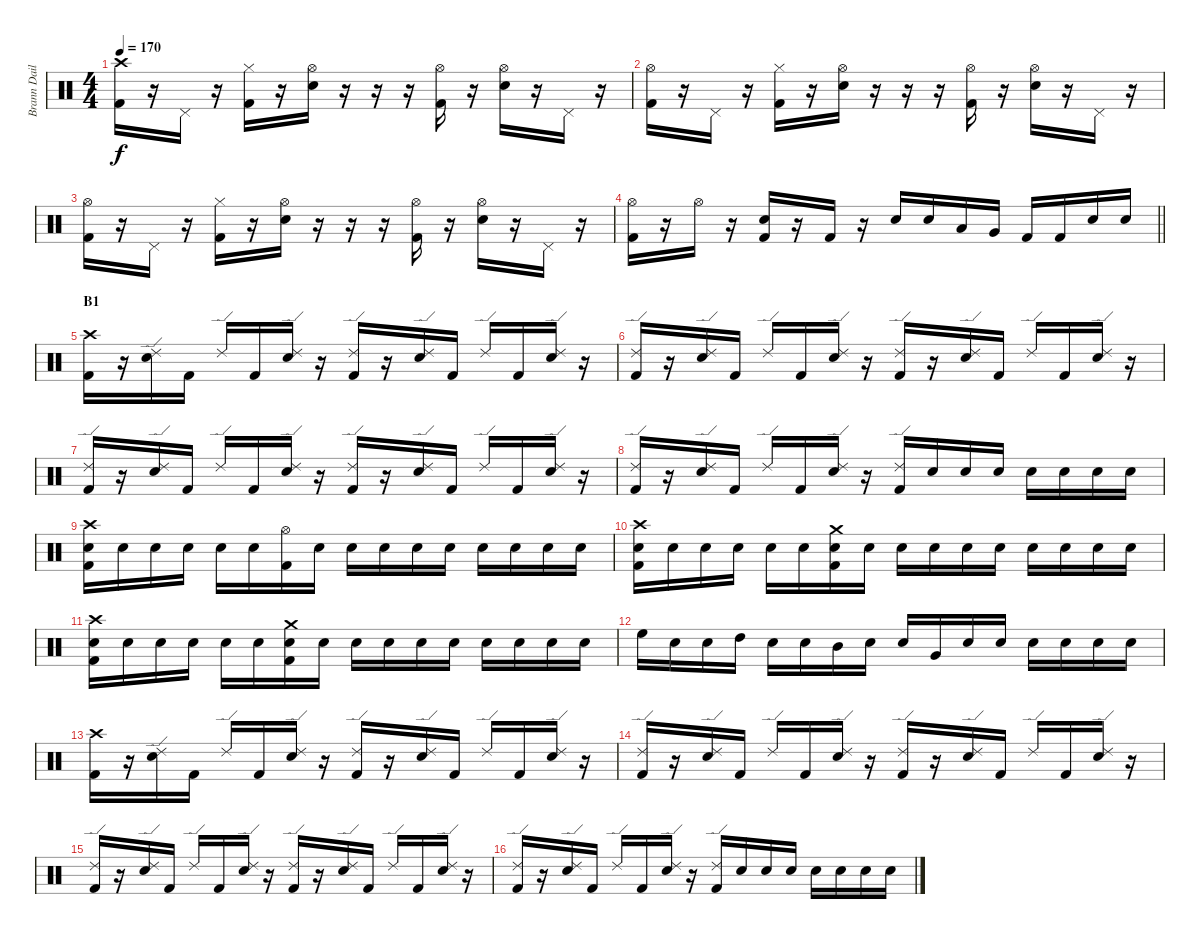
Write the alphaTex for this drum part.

\track ("Brann Dailor" "Brann Dail") {instrument percussion}
\staff {score}
\articulation defaults
\ts (4 4)
\tempo 170
\clef neutral
\ks c
("Crash high (hit)" "Kick (hit) 2").16{dy f} r.16 "Pedal Hi-Hat (hit)".16 r.16 ("Hi-Hat (closed)" "Kick (hit) 2").16 r.16 ("Hi-Hat (open)" "Electric Snare (hit)").16 r.16 r.16 r.16 ("Hi-Hat (open)" "Kick (hit) 2").16 r.16 ("Hi-Hat (open)" "Electric Snare (hit)").16 r.16 "Pedal Hi-Hat (hit)".16 r.16 |
("Hi-Hat (open)" "Kick (hit) 2").16 r.16 "Pedal Hi-Hat (hit)".16 r.16 ("Hi-Hat (closed)" "Kick (hit) 2").16 r.16 ("Hi-Hat (open)" "Electric Snare (hit)").16 r.16 r.16 r.16 ("Hi-Hat (open)" "Kick (hit) 2").16 r.16 ("Hi-Hat (open)" "Electric Snare (hit)").16 r.16 "Pedal Hi-Hat (hit)".16 r.16 |
("Hi-Hat (open)" "Kick (hit) 2").16 r.16 "Pedal Hi-Hat (hit)".16 r.16 ("Hi-Hat (closed)" "Kick (hit) 2").16 r.16 ("Hi-Hat (open)" "Electric Snare (hit)").16 r.16 r.16 r.16 ("Hi-Hat (open)" "Kick (hit) 2").16 r.16 ("Hi-Hat (open)" "Electric Snare (hit)").16 r.16 "Pedal Hi-Hat (hit)".16 r.16 |
\barLineRight lightlight
("Hi-Hat (open)" "Kick (hit) 2").16 r.16 "Hi-Hat (open)".16 r.16 ("Electric Snare (hit)" "Kick (hit) 2").16 r.16 "Kick (hit) 2".16 r.16 "Electric Snare (hit)".16 "Electric Snare (hit)".16 "Low Tom (hit)".16 "Very Low Tom (hit)".16 "Kick (hit) 2".16 "Kick (hit) 2".16 "Electric Snare (hit)".16 "Electric Snare (hit)".16 |
\section ("" "B1")
("Crash high (hit)" "Kick (hit) 2").16 r.16 ("Ride (edge) 2" "Electric Snare (hit)").16 "Kick (hit) 2".16 "Ride (edge) 2".16 "Kick (hit) 2".16 ("Ride (edge) 2" "Electric Snare (hit)").16 r.16 ("Ride (edge) 2" "Kick (hit) 2").16 r.16 ("Ride (edge) 2" "Electric Snare (hit)").16 "Kick (hit) 2".16 "Ride (edge) 2".16 "Kick (hit) 2".16 ("Ride (edge) 2" "Electric Snare (hit)").16 r.16 |
("Ride (edge) 2" "Kick (hit) 2").16 r.16 ("Ride (edge) 2" "Electric Snare (hit)").16 "Kick (hit) 2".16 "Ride (edge) 2".16 "Kick (hit) 2".16 ("Ride (edge) 2" "Electric Snare (hit)").16 r.16 ("Ride (edge) 2" "Kick (hit) 2").16 r.16 ("Ride (edge) 2" "Electric Snare (hit)").16 "Kick (hit) 2".16 "Ride (edge) 2".16 "Kick (hit) 2".16 ("Ride (edge) 2" "Electric Snare (hit)").16 r.16 |
("Ride (edge) 2" "Kick (hit) 2").16 r.16 ("Ride (edge) 2" "Electric Snare (hit)").16 "Kick (hit) 2".16 "Ride (edge) 2".16 "Kick (hit) 2".16 ("Ride (edge) 2" "Electric Snare (hit)").16 r.16 ("Ride (edge) 2" "Kick (hit) 2").16 r.16 ("Ride (edge) 2" "Electric Snare (hit)").16 "Kick (hit) 2".16 "Ride (edge) 2".16 "Kick (hit) 2".16 ("Ride (edge) 2" "Electric Snare (hit)").16 r.16 |
("Ride (edge) 2" "Kick (hit) 2").16 r.16 ("Ride (edge) 2" "Electric Snare (hit)").16 "Kick (hit) 2".16 "Ride (edge) 2".16 "Kick (hit) 2".16 ("Ride (edge) 2" "Electric Snare (hit)").16 r.16 ("Ride (edge) 2" "Kick (hit) 2").16 "Electric Snare (hit)".16 "Electric Snare (hit)".16 "Electric Snare (hit)".16 "Electric Snare (hit)".16 "Electric Snare (hit)".16 "Electric Snare (hit)".16 "Electric Snare (hit)".16 |
("Crash high (hit)" "Electric Snare (hit)" "Kick (hit) 2").16 "Electric Snare (hit)".16 "Electric Snare (hit)".16 "Electric Snare (hit)".16 "Electric Snare (hit)".16 "Electric Snare (hit)".16 ("Hi-Hat (open)" "Kick (hit) 2").16 "Electric Snare (hit)".16 "Electric Snare (hit)".16 "Electric Snare (hit)".16 "Electric Snare (hit)".16 "Electric Snare (hit)".16 "Electric Snare (hit)".16 "Electric Snare (hit)".16 "Electric Snare (hit)".16 "Electric Snare (hit)".16 |
("Crash high (hit)" "Electric Snare (hit)" "Kick (hit) 2").16 "Electric Snare (hit)".16 "Electric Snare (hit)".16 "Electric Snare (hit)".16 "Electric Snare (hit)".16 "Electric Snare (hit)".16 ("Crash medium (hit)" "Electric Snare (hit)" "Kick (hit) 2").16 "Electric Snare (hit)".16 "Electric Snare (hit)".16 "Electric Snare (hit)".16 "Electric Snare (hit)".16 "Electric Snare (hit)".16 "Electric Snare (hit)".16 "Electric Snare (hit)".16 "Electric Snare (hit)".16 "Electric Snare (hit)".16 |
("Crash high (hit)" "Electric Snare (hit)" "Kick (hit) 2").16 "Electric Snare (hit)".16 "Electric Snare (hit)".16 "Electric Snare (hit)".16 "Electric Snare (hit)".16 "Electric Snare (hit)".16 ("Crash medium (hit)" "Electric Snare (hit)" "Kick (hit) 2").16 "Electric Snare (hit)".16 "Electric Snare (hit)".16 "Electric Snare (hit)".16 "Electric Snare (hit)".16 "Electric Snare (hit)".16 "Electric Snare (hit)".16 "Electric Snare (hit)".16 "Electric Snare (hit)".16 "Electric Snare (hit)".16 |
"High Floor Tom (hit)".16 "Electric Snare (hit)".16 "Electric Snare (hit)".16 "High Tom (hit)".16 "Electric Snare (hit)".16 "Electric Snare (hit)".16 "Mid Tom (hit)".16 "Electric Snare (hit)".16 "Electric Snare (hit)".16 "Very Low Tom (hit)".16 "Electric Snare (hit)".16 "Electric Snare (hit)".16 "Electric Snare (hit)".16 "Electric Snare (hit)".16 "Electric Snare (hit)".16 "Electric Snare (hit)".16 |
("Crash high (hit)" "Kick (hit) 2").16 r.16 ("Ride (edge) 2" "Electric Snare (hit)").16 "Kick (hit) 2".16 "Ride (edge) 2".16 "Kick (hit) 2".16 ("Ride (edge) 2" "Electric Snare (hit)").16 r.16 ("Ride (edge) 2" "Kick (hit) 2").16 r.16 ("Ride (edge) 2" "Electric Snare (hit)").16 "Kick (hit) 2".16 "Ride (edge) 2".16 "Kick (hit) 2".16 ("Ride (edge) 2" "Electric Snare (hit)").16 r.16 |
("Ride (edge) 2" "Kick (hit) 2").16 r.16 ("Ride (edge) 2" "Electric Snare (hit)").16 "Kick (hit) 2".16 "Ride (edge) 2".16 "Kick (hit) 2".16 ("Ride (edge) 2" "Electric Snare (hit)").16 r.16 ("Ride (edge) 2" "Kick (hit) 2").16 r.16 ("Ride (edge) 2" "Electric Snare (hit)").16 "Kick (hit) 2".16 "Ride (edge) 2".16 "Kick (hit) 2".16 ("Ride (edge) 2" "Electric Snare (hit)").16 r.16 |
("Ride (edge) 2" "Kick (hit) 2").16 r.16 ("Ride (edge) 2" "Electric Snare (hit)").16 "Kick (hit) 2".16 "Ride (edge) 2".16 "Kick (hit) 2".16 ("Ride (edge) 2" "Electric Snare (hit)").16 r.16 ("Ride (edge) 2" "Kick (hit) 2").16 r.16 ("Ride (edge) 2" "Electric Snare (hit)").16 "Kick (hit) 2".16 "Ride (edge) 2".16 "Kick (hit) 2".16 ("Ride (edge) 2" "Electric Snare (hit)").16 r.16 |
("Ride (edge) 2" "Kick (hit) 2").16 r.16 ("Ride (edge) 2" "Electric Snare (hit)").16 "Kick (hit) 2".16 "Ride (edge) 2".16 "Kick (hit) 2".16 ("Ride (edge) 2" "Electric Snare (hit)").16 r.16 ("Ride (edge) 2" "Kick (hit) 2").16 "Electric Snare (hit)".16 "Electric Snare (hit)".16 "Electric Snare (hit)".16 "Electric Snare (hit)".16 "Electric Snare (hit)".16 "Electric Snare (hit)".16 "Electric Snare (hit)".16
